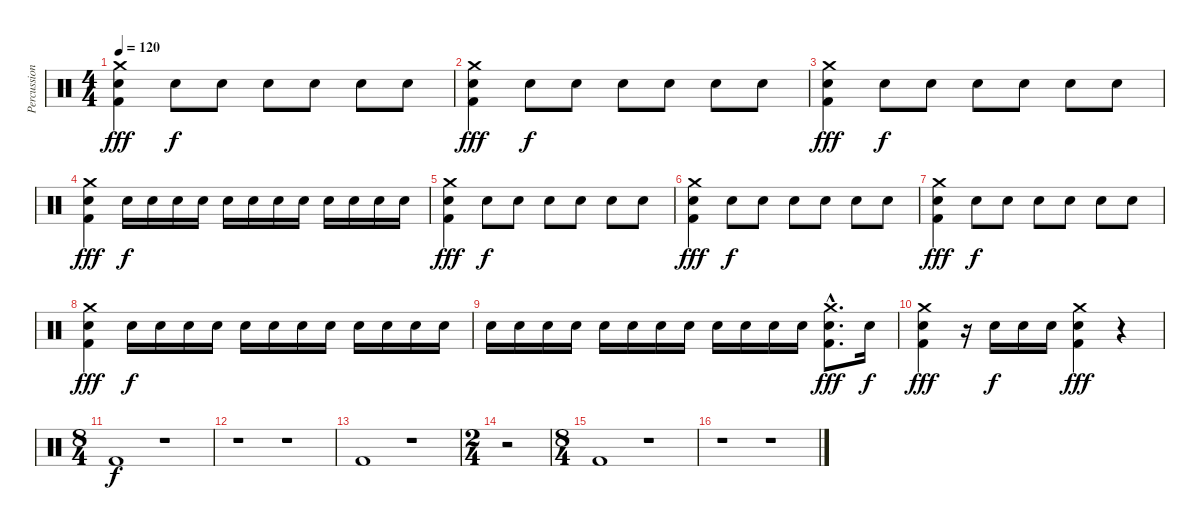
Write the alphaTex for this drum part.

\track ("Percussion" "Percussion") {instrument percussion}
\staff {score}
\articulation defaults
\ts (4 4)
\tempo 120
\clef neutral
\ks c
("Kick (hit) 2" "Snare (hit) 2" "Crash medium (hit)").4{dy fff} "Snare (hit) 2".8{dy f} "Snare (hit) 2".8 "Snare (hit) 2".8 "Snare (hit) 2".8 "Snare (hit) 2".8 "Snare (hit) 2".8 |
("Kick (hit) 2" "Snare (hit) 2" "Crash medium (hit)").4{dy fff} "Snare (hit) 2".8{dy f} "Snare (hit) 2".8 "Snare (hit) 2".8 "Snare (hit) 2".8 "Snare (hit) 2".8 "Snare (hit) 2".8 |
("Kick (hit) 2" "Snare (hit) 2" "Crash medium (hit)").4{dy fff} "Snare (hit) 2".8{dy f} "Snare (hit) 2".8 "Snare (hit) 2".8 "Snare (hit) 2".8 "Snare (hit) 2".8 "Snare (hit) 2".8 |
("Kick (hit) 2" "Snare (hit) 2" "Crash medium (hit)").4{dy fff} "Snare (hit) 2".16{dy f} "Snare (hit) 2".16 "Snare (hit) 2".16 "Snare (hit) 2".16 "Snare (hit) 2".16 "Snare (hit) 2".16 "Snare (hit) 2".16 "Snare (hit) 2".16 "Snare (hit) 2".16 "Snare (hit) 2".16 "Snare (hit) 2".16 "Snare (hit) 2".16 |
("Kick (hit) 2" "Snare (hit) 2" "Crash medium (hit)").4{dy fff} "Snare (hit) 2".8{dy f} "Snare (hit) 2".8 "Snare (hit) 2".8 "Snare (hit) 2".8 "Snare (hit) 2".8 "Snare (hit) 2".8 |
("Kick (hit) 2" "Snare (hit) 2" "Crash medium (hit)").4{dy fff} "Snare (hit) 2".8{dy f} "Snare (hit) 2".8 "Snare (hit) 2".8 "Snare (hit) 2".8 "Snare (hit) 2".8 "Snare (hit) 2".8 |
("Kick (hit) 2" "Snare (hit) 2" "Crash medium (hit)").4{dy fff} "Snare (hit) 2".8{dy f} "Snare (hit) 2".8 "Snare (hit) 2".8 "Snare (hit) 2".8 "Snare (hit) 2".8 "Snare (hit) 2".8 |
("Kick (hit) 2" "Snare (hit) 2" "Crash medium (hit)").4{dy fff} "Snare (hit) 2".16{dy f} "Snare (hit) 2".16 "Snare (hit) 2".16 "Snare (hit) 2".16 "Snare (hit) 2".16 "Snare (hit) 2".16 "Snare (hit) 2".16 "Snare (hit) 2".16 "Snare (hit) 2".16 "Snare (hit) 2".16 "Snare (hit) 2".16 "Snare (hit) 2".16 |
"Snare (hit) 2".16 "Snare (hit) 2".16 "Snare (hit) 2".16 "Snare (hit) 2".16 "Snare (hit) 2".16 "Snare (hit) 2".16 "Snare (hit) 2".16 "Snare (hit) 2".16 "Snare (hit) 2".16 "Snare (hit) 2".16 "Snare (hit) 2".16 "Snare (hit) 2".16 ("Kick (hit) 2" "Snare (hit) 2"{hac} "Crash medium (hit)").8{d dy fff} "Snare (hit) 2".16{dy f} |
("Kick (hit) 2" "Snare (hit) 2" "Crash medium (hit)").4{dy fff} r.16 "Snare (hit) 2".16{dy f} "Snare (hit) 2".16 "Snare (hit) 2".16 ("Kick (hit) 2" "Snare (hit) 2" "Crash medium (hit)").4{dy fff} r.4 |
\ts (8 4)
"Kick (hit) 2".1{dy f} r.1 |
r.1 r.1 |
"Kick (hit) 2".1 r.1 |
\ts (2 4)
r.2 |
\ts (8 4)
"Kick (hit) 2".1 r.1 |
r.1 r.1
